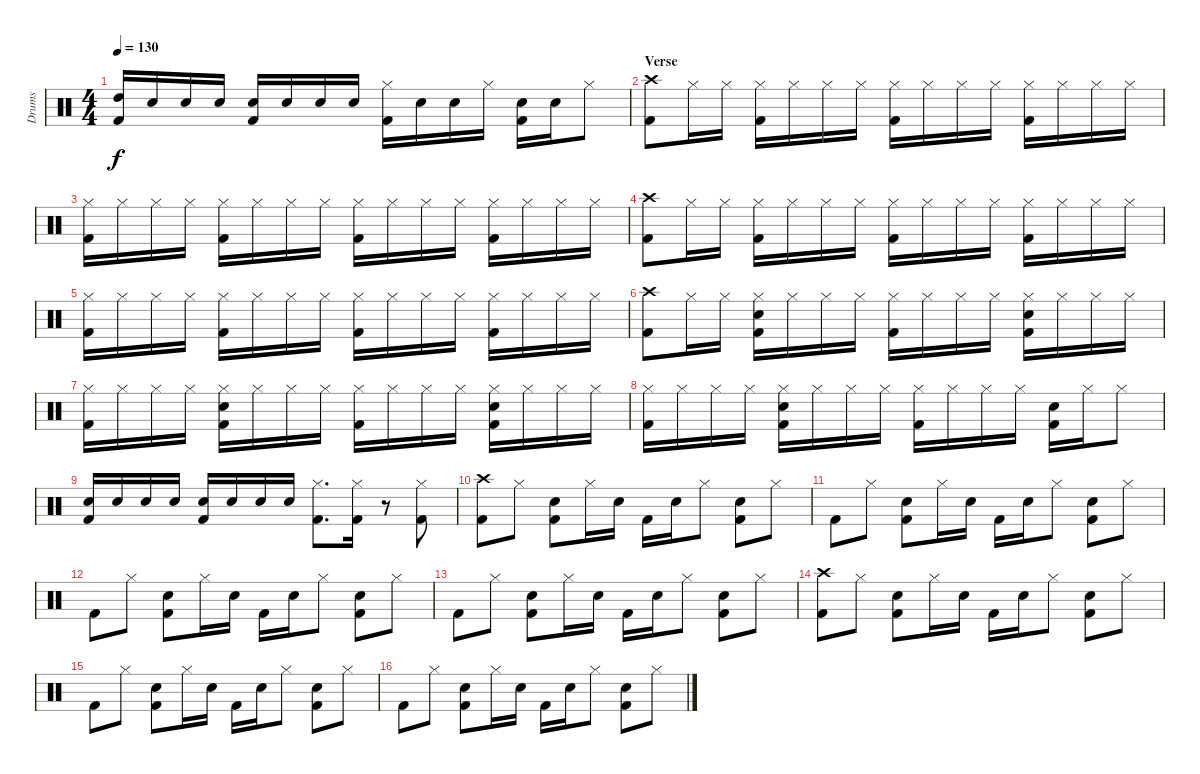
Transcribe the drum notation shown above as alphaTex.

\track ("Drums" "Drums") {instrument percussion}
\staff {score}
\articulation defaults
\ts (4 4)
\tempo 130
\clef neutral
\ks c
("High Tom (hit)" "Kick (hit) 2").16{dy f} "Snare (hit) 2".16 "Snare (hit) 2".16 "Snare (hit) 2".16 ("Snare (hit) 2" "Kick (hit) 2").16 "Snare (hit) 2".16 "Snare (hit) 2".16 "Snare (hit) 2".16 ("Hi-Hat (closed)" "Kick (hit) 2").16 "Snare (hit) 2".16 "Snare (hit) 2".16 "Hi-Hat (closed)".16 ("Snare (hit) 2" "Kick (hit) 2").16 "Snare (hit) 2".16 "Hi-Hat (closed)".8 |
\section ("" "Verse")
("Crash high (hit)" "Kick (hit) 2").8 "Hi-Hat (closed)".16 "Hi-Hat (closed)".16 ("Hi-Hat (closed)" "Kick (hit) 2").16 "Hi-Hat (closed)".16 "Hi-Hat (closed)".16 "Hi-Hat (closed)".16 ("Hi-Hat (closed)" "Kick (hit) 2").16 "Hi-Hat (closed)".16 "Hi-Hat (closed)".16 "Hi-Hat (closed)".16 ("Hi-Hat (closed)" "Kick (hit) 2").16 "Hi-Hat (closed)".16 "Hi-Hat (closed)".16 "Hi-Hat (closed)".16 |
("Hi-Hat (closed)" "Kick (hit) 2").16 "Hi-Hat (closed)".16 "Hi-Hat (closed)".16 "Hi-Hat (closed)".16 ("Hi-Hat (closed)" "Kick (hit) 2").16 "Hi-Hat (closed)".16 "Hi-Hat (closed)".16 "Hi-Hat (closed)".16 ("Hi-Hat (closed)" "Kick (hit) 2").16 "Hi-Hat (closed)".16 "Hi-Hat (closed)".16 "Hi-Hat (closed)".16 ("Hi-Hat (closed)" "Kick (hit) 2").16 "Hi-Hat (closed)".16 "Hi-Hat (closed)".16 "Hi-Hat (closed)".16 |
("Crash high (hit)" "Kick (hit) 2").8 "Hi-Hat (closed)".16 "Hi-Hat (closed)".16 ("Hi-Hat (closed)" "Kick (hit) 2").16 "Hi-Hat (closed)".16 "Hi-Hat (closed)".16 "Hi-Hat (closed)".16 ("Hi-Hat (closed)" "Kick (hit) 2").16 "Hi-Hat (closed)".16 "Hi-Hat (closed)".16 "Hi-Hat (closed)".16 ("Hi-Hat (closed)" "Kick (hit) 2").16 "Hi-Hat (closed)".16 "Hi-Hat (closed)".16 "Hi-Hat (closed)".16 |
("Hi-Hat (closed)" "Kick (hit) 2").16 "Hi-Hat (closed)".16 "Hi-Hat (closed)".16 "Hi-Hat (closed)".16 ("Hi-Hat (closed)" "Kick (hit) 2").16 "Hi-Hat (closed)".16 "Hi-Hat (closed)".16 "Hi-Hat (closed)".16 ("Hi-Hat (closed)" "Kick (hit) 2").16 "Hi-Hat (closed)".16 "Hi-Hat (closed)".16 "Hi-Hat (closed)".16 ("Hi-Hat (closed)" "Kick (hit) 2").16 "Hi-Hat (closed)".16 "Hi-Hat (closed)".16 "Hi-Hat (closed)".16 |
("Crash high (hit)" "Kick (hit) 2").8 "Hi-Hat (closed)".16 "Hi-Hat (closed)".16 ("Hi-Hat (closed)" "Snare (hit) 2" "Kick (hit) 2").16 "Hi-Hat (closed)".16 "Hi-Hat (closed)".16 "Hi-Hat (closed)".16 ("Hi-Hat (closed)" "Kick (hit) 2").16 "Hi-Hat (closed)".16 "Hi-Hat (closed)".16 "Hi-Hat (closed)".16 ("Hi-Hat (closed)" "Snare (hit) 2" "Kick (hit) 2").16 "Hi-Hat (closed)".16 "Hi-Hat (closed)".16 "Hi-Hat (closed)".16 |
("Hi-Hat (closed)" "Kick (hit) 2").16 "Hi-Hat (closed)".16 "Hi-Hat (closed)".16 "Hi-Hat (closed)".16 ("Hi-Hat (closed)" "Snare (hit) 2" "Kick (hit) 2").16 "Hi-Hat (closed)".16 "Hi-Hat (closed)".16 "Hi-Hat (closed)".16 ("Hi-Hat (closed)" "Kick (hit) 2").16 "Hi-Hat (closed)".16 "Hi-Hat (closed)".16 "Hi-Hat (closed)".16 ("Hi-Hat (closed)" "Snare (hit) 2" "Kick (hit) 2").16 "Hi-Hat (closed)".16 "Hi-Hat (closed)".16 "Hi-Hat (closed)".16 |
("Hi-Hat (closed)" "Kick (hit) 2").16 "Hi-Hat (closed)".16 "Hi-Hat (closed)".16 "Hi-Hat (closed)".16 ("Hi-Hat (closed)" "Snare (hit) 2" "Kick (hit) 2").16 "Hi-Hat (closed)".16 "Hi-Hat (closed)".16 "Hi-Hat (closed)".16 ("Hi-Hat (closed)" "Kick (hit) 2").16 "Hi-Hat (closed)".16 "Hi-Hat (closed)".16 "Hi-Hat (closed)".16 ("Snare (hit) 2" "Kick (hit) 2").16 "Hi-Hat (closed)".16 "Hi-Hat (closed)".8 |
("Snare (hit) 2" "Kick (hit) 2").16 "Snare (hit) 2".16 "Snare (hit) 2".16 "Snare (hit) 2".16 ("Snare (hit) 2" "Kick (hit) 2").16 "Snare (hit) 2".16 "Snare (hit) 2".16 "Snare (hit) 2".16 ("Hi-Hat (closed)" "Kick (hit) 2").8{d} ("Hi-Hat (closed)" "Kick (hit) 2").16 r.8 ("Hi-Hat (closed)" "Kick (hit) 2").8 |
("Crash high (hit)" "Kick (hit) 2").8 "Hi-Hat (closed)".8 ("Snare (hit) 2" "Kick (hit) 2").8 "Hi-Hat (closed)".16 "Snare (hit) 2".16 "Kick (hit) 2".16 "Snare (hit) 2".16 "Hi-Hat (closed)".8 ("Snare (hit) 2" "Kick (hit) 2").8 "Hi-Hat (closed)".8 |
"Kick (hit) 2".8 "Hi-Hat (closed)".8 ("Snare (hit) 2" "Kick (hit) 2").8 "Hi-Hat (closed)".16 "Snare (hit) 2".16 "Kick (hit) 2".16 "Snare (hit) 2".16 "Hi-Hat (closed)".8 ("Snare (hit) 2" "Kick (hit) 2").8 "Hi-Hat (closed)".8 |
"Kick (hit) 2".8 "Hi-Hat (closed)".8 ("Snare (hit) 2" "Kick (hit) 2").8 "Hi-Hat (closed)".16 "Snare (hit) 2".16 "Kick (hit) 2".16 "Snare (hit) 2".16 "Hi-Hat (closed)".8 ("Snare (hit) 2" "Kick (hit) 2").8 "Hi-Hat (closed)".8 |
"Kick (hit) 2".8 "Hi-Hat (closed)".8 ("Snare (hit) 2" "Kick (hit) 2").8 "Hi-Hat (closed)".16 "Snare (hit) 2".16 "Kick (hit) 2".16 "Snare (hit) 2".16 "Hi-Hat (closed)".8 ("Snare (hit) 2" "Kick (hit) 2").8 "Hi-Hat (closed)".8 |
("Crash high (hit)" "Kick (hit) 2").8 "Hi-Hat (closed)".8 ("Snare (hit) 2" "Kick (hit) 2").8 "Hi-Hat (closed)".16 "Snare (hit) 2".16 "Kick (hit) 2".16 "Snare (hit) 2".16 "Hi-Hat (closed)".8 ("Snare (hit) 2" "Kick (hit) 2").8 "Hi-Hat (closed)".8 |
"Kick (hit) 2".8 "Hi-Hat (closed)".8 ("Snare (hit) 2" "Kick (hit) 2").8 "Hi-Hat (closed)".16 "Snare (hit) 2".16 "Kick (hit) 2".16 "Snare (hit) 2".16 "Hi-Hat (closed)".8 ("Snare (hit) 2" "Kick (hit) 2").8 "Hi-Hat (closed)".8 |
"Kick (hit) 2".8 "Hi-Hat (closed)".8 ("Snare (hit) 2" "Kick (hit) 2").8 "Hi-Hat (closed)".16 "Snare (hit) 2".16 "Kick (hit) 2".16 "Snare (hit) 2".16 "Hi-Hat (closed)".8 ("Snare (hit) 2" "Kick (hit) 2").8 "Hi-Hat (closed)".8
